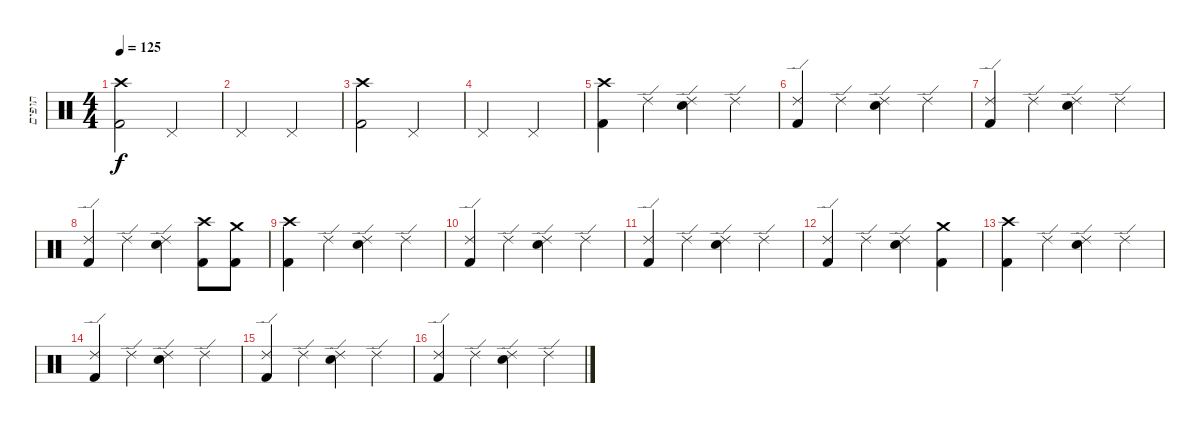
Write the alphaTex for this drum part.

\track ("תופים" "תופים") {instrument percussion}
\staff {score}
\articulation defaults
\ts (4 4)
\tempo 125
\clef neutral
\ks c
("Crash high (hit)" "Kick (hit) 2").2{dy f} "Pedal Hi-Hat (hit)".2 |
"Pedal Hi-Hat (hit)".2 "Pedal Hi-Hat (hit)".2 |
("Crash high (hit)" "Kick (hit) 2").2 "Pedal Hi-Hat (hit)".2 |
"Pedal Hi-Hat (hit)".2 "Pedal Hi-Hat (hit)".2 |
("Crash high (hit)" "Kick (hit) 2").4 "Ride (edge) 2".4 ("Ride (edge) 2" "Snare (hit) 2").4 "Ride (edge) 2".4 |
("Ride (edge) 2" "Kick (hit) 2").4 "Ride (edge) 2".4 ("Ride (edge) 2" "Snare (hit) 2").4 "Ride (edge) 2".4 |
("Ride (edge) 2" "Kick (hit) 2").4 "Ride (edge) 2".4 ("Ride (edge) 2" "Snare (hit) 2").4 "Ride (edge) 2".4 |
("Ride (edge) 2" "Kick (hit) 2").4 "Ride (edge) 2".4 ("Ride (edge) 2" "Snare (hit) 2").4 ("Crash high (hit)" "Kick (hit) 2").8 ("Crash medium (hit)" "Kick (hit) 2").8 |
("Crash high (hit)" "Kick (hit) 2").4 "Ride (edge) 2".4 ("Ride (edge) 2" "Snare (hit) 2").4 "Ride (edge) 2".4 |
("Ride (edge) 2" "Kick (hit) 2").4 "Ride (edge) 2".4 ("Ride (edge) 2" "Snare (hit) 2").4 "Ride (edge) 2".4 |
("Ride (edge) 2" "Kick (hit) 2").4 "Ride (edge) 2".4 ("Ride (edge) 2" "Snare (hit) 2").4 "Ride (edge) 2".4 |
("Ride (edge) 2" "Kick (hit) 2").4 "Ride (edge) 2".4 ("Ride (edge) 2" "Snare (hit) 2").4 ("Crash medium (hit)" "Kick (hit) 2").4 |
("Crash high (hit)" "Kick (hit) 2").4 "Ride (edge) 2".4 ("Ride (edge) 2" "Snare (hit) 2").4 "Ride (edge) 2".4 |
("Ride (edge) 2" "Kick (hit) 2").4 "Ride (edge) 2".4 ("Ride (edge) 2" "Snare (hit) 2").4 "Ride (edge) 2".4 |
("Ride (edge) 2" "Kick (hit) 2").4 "Ride (edge) 2".4 ("Ride (edge) 2" "Snare (hit) 2").4 "Ride (edge) 2".4 |
("Ride (edge) 2" "Kick (hit) 2").4 "Ride (edge) 2".4 ("Ride (edge) 2" "Snare (hit) 2").4 "Ride (edge) 2".4
